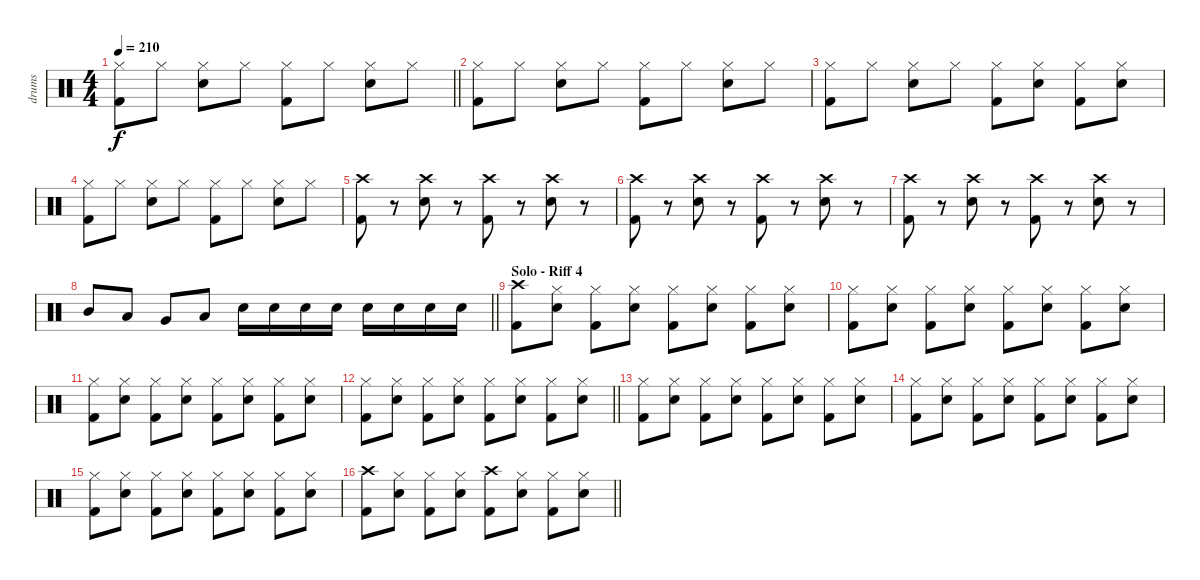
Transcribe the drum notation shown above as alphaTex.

\track ("drums" "drums") {instrument percussion}
\staff {score}
\articulation defaults
\ts (4 4)
\tempo 210
\clef neutral
\barLineRight lightlight
\ks c
("Hi-Hat (closed)" "Kick (hit) 2").8{dy f} "Hi-Hat (closed)".8 ("Hi-Hat (closed)" "Electric Snare (hit)").8 "Hi-Hat (closed)".8 ("Hi-Hat (closed)" "Kick (hit) 2").8 "Hi-Hat (closed)".8 ("Hi-Hat (closed)" "Electric Snare (hit)").8 "Hi-Hat (closed)".8 |
("Hi-Hat (closed)" "Kick (hit) 2").8 "Hi-Hat (closed)".8 ("Hi-Hat (closed)" "Electric Snare (hit)").8 "Hi-Hat (closed)".8 ("Hi-Hat (closed)" "Kick (hit) 2").8 "Hi-Hat (closed)".8 ("Hi-Hat (closed)" "Electric Snare (hit)").8 "Hi-Hat (closed)".8 |
("Hi-Hat (closed)" "Kick (hit) 2").8 "Hi-Hat (closed)".8 ("Hi-Hat (closed)" "Electric Snare (hit)").8 "Hi-Hat (closed)".8 ("Hi-Hat (closed)" "Kick (hit) 2").8 ("Hi-Hat (closed)" "Electric Snare (hit)").8 ("Hi-Hat (closed)" "Kick (hit) 2").8 ("Hi-Hat (closed)" "Electric Snare (hit)").8 |
("Hi-Hat (closed)" "Kick (hit) 2").8 "Hi-Hat (closed)".8 ("Hi-Hat (closed)" "Electric Snare (hit)").8 "Hi-Hat (closed)".8 ("Hi-Hat (closed)" "Kick (hit) 2").8 "Hi-Hat (closed)".8 ("Hi-Hat (closed)" "Electric Snare (hit)").8 "Hi-Hat (closed)".8 |
("Crash high (hit)" "Kick (hit) 2").8 r.8 ("Crash high (hit)" "Electric Snare (hit)").8 r.8 ("Crash high (hit)" "Kick (hit) 2").8 r.8 ("Crash high (hit)" "Electric Snare (hit)").8 r.8 |
("Crash high (hit)" "Kick (hit) 2").8 r.8 ("Crash high (hit)" "Electric Snare (hit)").8 r.8 ("Crash high (hit)" "Kick (hit) 2").8 r.8 ("Crash high (hit)" "Electric Snare (hit)").8 r.8 |
("Crash high (hit)" "Kick (hit) 2").8 r.8 ("Crash high (hit)" "Electric Snare (hit)").8 r.8 ("Crash high (hit)" "Kick (hit) 2").8 r.8 ("Crash high (hit)" "Electric Snare (hit)").8 r.8 |
\barLineRight lightlight "Mid Tom (hit)".8 "Low Tom (hit)".8 "Very Low Tom (hit)".8 "Low Floor Tom (hit)".8 "Electric Snare (hit)".16 "Electric Snare (hit)".16 "Electric Snare (hit)".16 "Electric Snare (hit)".16 "Electric Snare (hit)".16 "Electric Snare (hit)".16 "Electric Snare (hit)".16 "Electric Snare (hit)".16
|
\section ("" "Solo - Riff 4")
("Crash high (hit)" "Kick (hit) 2").8 ("Hi-Hat (closed)" "Electric Snare (hit)").8 ("Hi-Hat (closed)" "Kick (hit) 2").8 ("Hi-Hat (closed)" "Electric Snare (hit)").8 ("Hi-Hat (closed)" "Kick (hit) 2").8 ("Hi-Hat (closed)" "Electric Snare (hit)").8 ("Hi-Hat (closed)" "Kick (hit) 2").8 ("Hi-Hat (closed)" "Electric Snare (hit)").8 |
("Hi-Hat (closed)" "Kick (hit) 2").8 ("Hi-Hat (closed)" "Electric Snare (hit)").8 ("Hi-Hat (closed)" "Kick (hit) 2").8 ("Hi-Hat (closed)" "Electric Snare (hit)").8 ("Hi-Hat (closed)" "Kick (hit) 2").8 ("Hi-Hat (closed)" "Electric Snare (hit)").8 ("Hi-Hat (closed)" "Kick (hit) 2").8 ("Hi-Hat (closed)" "Electric Snare (hit)").8 |
("Hi-Hat (closed)" "Kick (hit) 2").8 ("Hi-Hat (closed)" "Electric Snare (hit)").8 ("Hi-Hat (closed)" "Kick (hit) 2").8 ("Hi-Hat (closed)" "Electric Snare (hit)").8 ("Hi-Hat (closed)" "Kick (hit) 2").8 ("Hi-Hat (closed)" "Electric Snare (hit)").8 ("Hi-Hat (closed)" "Kick (hit) 2").8 ("Hi-Hat (closed)" "Electric Snare (hit)").8 |
\barLineRight lightlight
("Hi-Hat (closed)" "Kick (hit) 2").8 ("Hi-Hat (closed)" "Electric Snare (hit)").8 ("Hi-Hat (closed)" "Kick (hit) 2").8 ("Hi-Hat (closed)" "Electric Snare (hit)").8 ("Hi-Hat (closed)" "Kick (hit) 2").8 ("Hi-Hat (closed)" "Electric Snare (hit)").8 ("Hi-Hat (closed)" "Kick (hit) 2").8 ("Hi-Hat (closed)" "Electric Snare (hit)").8 |
("Hi-Hat (closed)" "Kick (hit) 2").8 ("Hi-Hat (closed)" "Electric Snare (hit)").8 ("Hi-Hat (closed)" "Kick (hit) 2").8 ("Hi-Hat (closed)" "Electric Snare (hit)").8 ("Hi-Hat (closed)" "Kick (hit) 2").8 ("Hi-Hat (closed)" "Electric Snare (hit)").8 ("Hi-Hat (closed)" "Kick (hit) 2").8 ("Hi-Hat (closed)" "Electric Snare (hit)").8 |
("Hi-Hat (closed)" "Kick (hit) 2").8 ("Hi-Hat (closed)" "Electric Snare (hit)").8 ("Hi-Hat (closed)" "Kick (hit) 2").8 ("Hi-Hat (closed)" "Electric Snare (hit)").8 ("Hi-Hat (closed)" "Kick (hit) 2").8 ("Hi-Hat (closed)" "Electric Snare (hit)").8 ("Hi-Hat (closed)" "Kick (hit) 2").8 ("Hi-Hat (closed)" "Electric Snare (hit)").8 |
("Hi-Hat (closed)" "Kick (hit) 2").8 ("Hi-Hat (closed)" "Electric Snare (hit)").8 ("Hi-Hat (closed)" "Kick (hit) 2").8 ("Hi-Hat (closed)" "Electric Snare (hit)").8 ("Hi-Hat (closed)" "Kick (hit) 2").8 ("Hi-Hat (closed)" "Electric Snare (hit)").8 ("Hi-Hat (closed)" "Kick (hit) 2").8 ("Hi-Hat (closed)" "Electric Snare (hit)").8 |
\barLineRight lightlight
("Crash high (hit)" "Kick (hit) 2").8 ("Hi-Hat (closed)" "Electric Snare (hit)").8 ("Hi-Hat (closed)" "Kick (hit) 2").8 ("Hi-Hat (closed)" "Electric Snare (hit)").8 ("Crash high (hit)" "Kick (hit) 2").8 ("Hi-Hat (closed)" "Electric Snare (hit)").8 ("Hi-Hat (closed)" "Kick (hit) 2").8 ("Hi-Hat (closed)" "Electric Snare (hit)").8
